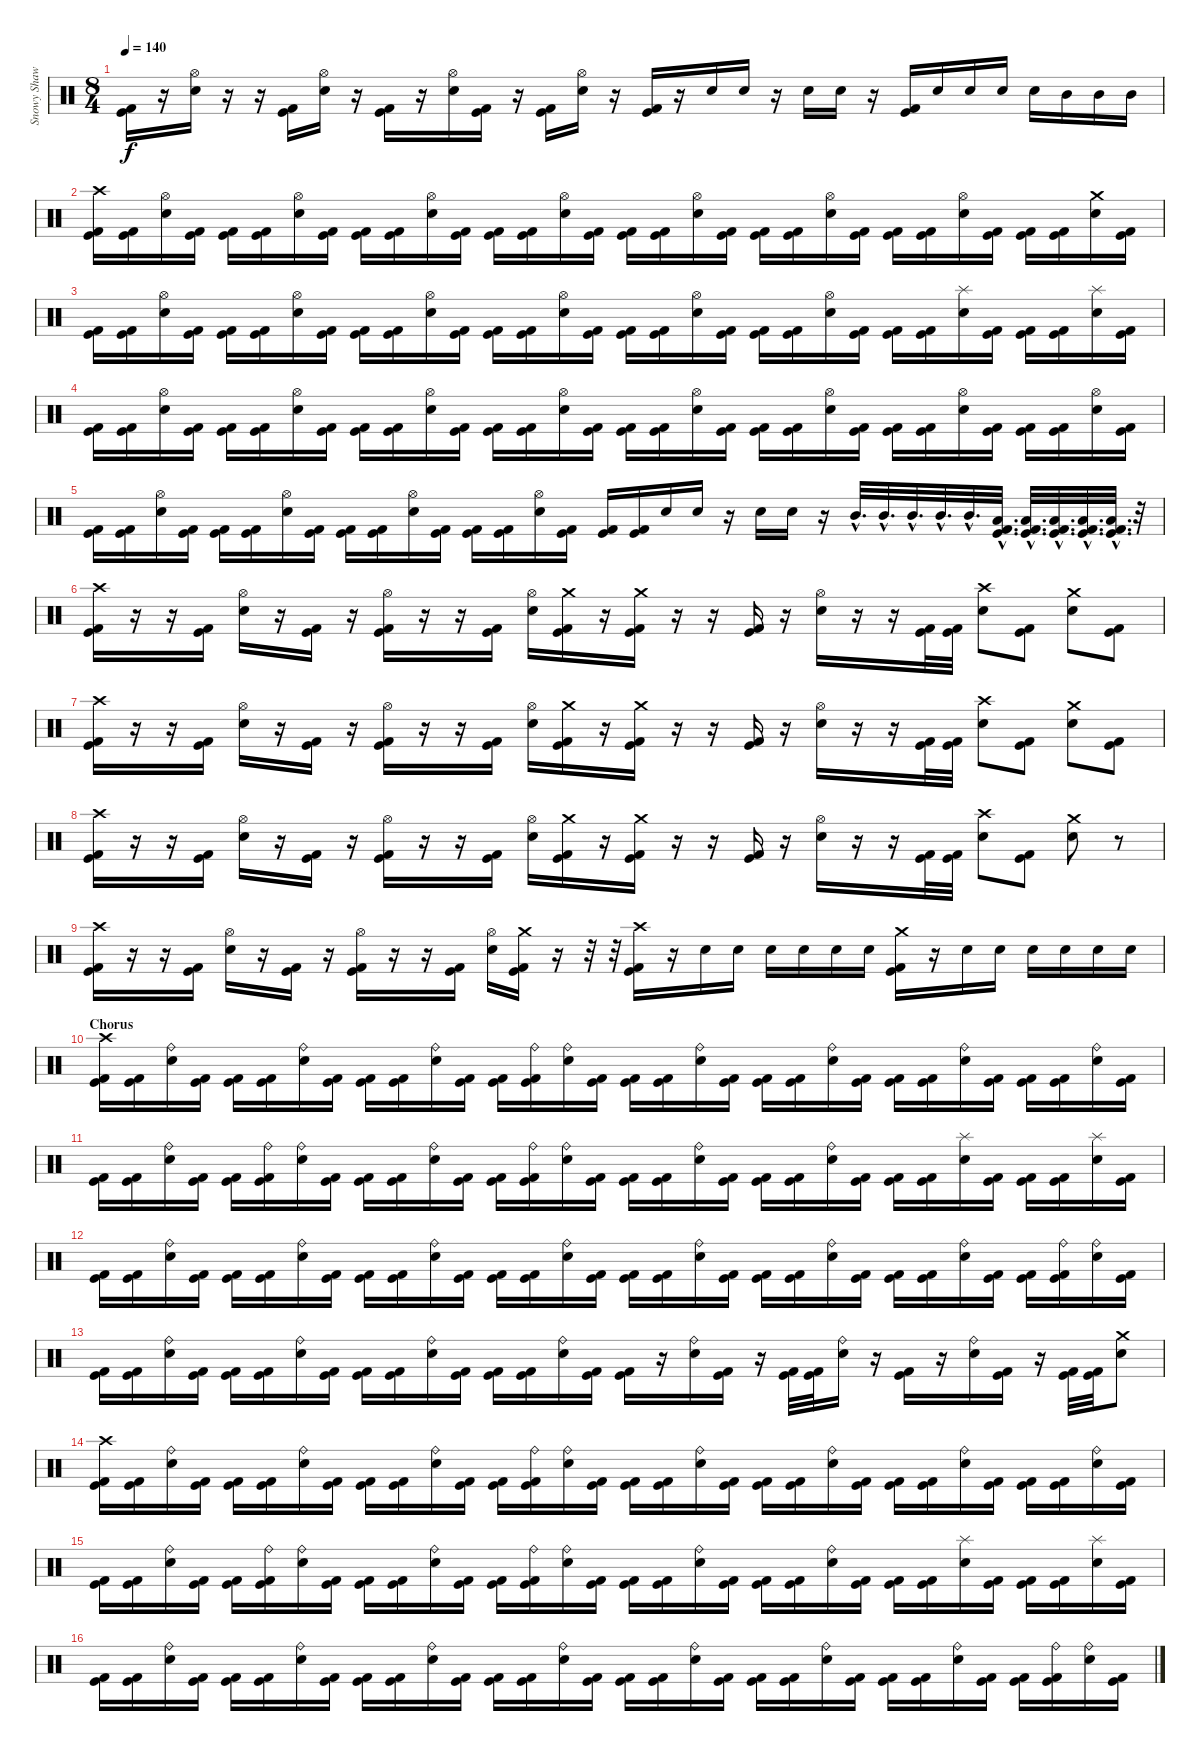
\track ("Snowy Shaw" "Snowy Shaw") {instrument percussion}
\staff {score}
\articulation defaults
\ts (8 4)
\tempo 140
\clef neutral
\ks c
("Kick (hit)" "Kick (hit) 2").16{dy f} r.16 ("Hi-Hat (open)" "Electric Snare (hit)").16 r.16 r.16 ("Kick (hit)" "Kick (hit) 2").16 ("Hi-Hat (open)" "Electric Snare (hit)").16 r.16 ("Kick (hit)" "Kick (hit) 2").16 r.16 ("Hi-Hat (open)" "Electric Snare (hit)").16 ("Kick (hit)" "Kick (hit) 2").16 r.16 ("Kick (hit)" "Kick (hit) 2").16 ("Hi-Hat (open)" "Electric Snare (hit)").16 r.16 ("Kick (hit)" "Kick (hit) 2").16 r.16 "Electric Snare (hit)".16 "Electric Snare (hit)".16 r.16 "Electric Snare (hit)".16 "Electric Snare (hit)".16 r.16 ("Kick (hit)" "Kick (hit) 2").16 "Electric Snare (hit)".16 "Electric Snare (hit)".16 "Electric Snare (hit)".16 "Electric Snare (hit)".16 "Mid Tom (hit)".16 "Mid Tom (hit)".16 "Mid Tom (hit)".16 |
("Crash high (hit)" "Kick (hit)" "Kick (hit) 2").16 ("Kick (hit)" "Kick (hit) 2").16 ("Hi-Hat (open)" "Electric Snare (hit)").16 ("Kick (hit)" "Kick (hit) 2").16 ("Kick (hit)" "Kick (hit) 2").16 ("Kick (hit)" "Kick (hit) 2").16 ("Hi-Hat (open)" "Electric Snare (hit)").16 ("Kick (hit)" "Kick (hit) 2").16 ("Kick (hit)" "Kick (hit) 2").16 ("Kick (hit)" "Kick (hit) 2").16 ("Hi-Hat (open)" "Electric Snare (hit)").16 ("Kick (hit)" "Kick (hit) 2").16 ("Kick (hit)" "Kick (hit) 2").16 ("Kick (hit)" "Kick (hit) 2").16 ("Hi-Hat (open)" "Electric Snare (hit)").16 ("Kick (hit)" "Kick (hit) 2").16 ("Kick (hit)" "Kick (hit) 2").16 ("Kick (hit)" "Kick (hit) 2").16 ("Hi-Hat (open)" "Electric Snare (hit)").16 ("Kick (hit)" "Kick (hit) 2").16 ("Kick (hit)" "Kick (hit) 2").16 ("Kick (hit)" "Kick (hit) 2").16 ("Hi-Hat (open)" "Electric Snare (hit)").16 ("Kick (hit)" "Kick (hit) 2").16 ("Kick (hit)" "Kick (hit) 2").16 ("Kick (hit)" "Kick (hit) 2").16 ("Hi-Hat (open)" "Electric Snare (hit)").16 ("Kick (hit)" "Kick (hit) 2").16 ("Kick (hit)" "Kick (hit) 2").16 ("Kick (hit)" "Kick (hit) 2").16 ("Crash medium (hit)" "Electric Snare (hit)").16 ("Kick (hit)" "Kick (hit) 2").16 |
("Kick (hit)" "Kick (hit) 2").16 ("Kick (hit)" "Kick (hit) 2").16 ("Hi-Hat (open)" "Electric Snare (hit)").16 ("Kick (hit)" "Kick (hit) 2").16 ("Kick (hit)" "Kick (hit) 2").16 ("Kick (hit)" "Kick (hit) 2").16 ("Hi-Hat (open)" "Electric Snare (hit)").16 ("Kick (hit)" "Kick (hit) 2").16 ("Kick (hit)" "Kick (hit) 2").16 ("Kick (hit)" "Kick (hit) 2").16 ("Hi-Hat (open)" "Electric Snare (hit)").16 ("Kick (hit)" "Kick (hit) 2").16 ("Kick (hit)" "Kick (hit) 2").16 ("Kick (hit)" "Kick (hit) 2").16 ("Hi-Hat (open)" "Electric Snare (hit)").16 ("Kick (hit)" "Kick (hit) 2").16 ("Kick (hit)" "Kick (hit) 2").16 ("Kick (hit)" "Kick (hit) 2").16 ("Hi-Hat (open)" "Electric Snare (hit)").16 ("Kick (hit)" "Kick (hit) 2").16 ("Kick (hit)" "Kick (hit) 2").16 ("Kick (hit)" "Kick (hit) 2").16 ("Hi-Hat (open)" "Electric Snare (hit)").16 ("Kick (hit)" "Kick (hit) 2").16 ("Kick (hit)" "Kick (hit) 2").16 ("Kick (hit)" "Kick (hit) 2").16 ("Splash (hit)" "Electric Snare (hit)").16 ("Kick (hit)" "Kick (hit) 2").16 ("Kick (hit)" "Kick (hit) 2").16 ("Kick (hit)" "Kick (hit) 2").16 ("Splash (hit)" "Electric Snare (hit)").16 ("Kick (hit)" "Kick (hit) 2").16 |
("Kick (hit)" "Kick (hit) 2").16 ("Kick (hit)" "Kick (hit) 2").16 ("Hi-Hat (open)" "Electric Snare (hit)").16 ("Kick (hit)" "Kick (hit) 2").16 ("Kick (hit)" "Kick (hit) 2").16 ("Kick (hit)" "Kick (hit) 2").16 ("Hi-Hat (open)" "Electric Snare (hit)").16 ("Kick (hit)" "Kick (hit) 2").16 ("Kick (hit)" "Kick (hit) 2").16 ("Kick (hit)" "Kick (hit) 2").16 ("Hi-Hat (open)" "Electric Snare (hit)").16 ("Kick (hit)" "Kick (hit) 2").16 ("Kick (hit)" "Kick (hit) 2").16 ("Kick (hit)" "Kick (hit) 2").16 ("Hi-Hat (open)" "Electric Snare (hit)").16 ("Kick (hit)" "Kick (hit) 2").16 ("Kick (hit)" "Kick (hit) 2").16 ("Kick (hit)" "Kick (hit) 2").16 ("Hi-Hat (open)" "Electric Snare (hit)").16 ("Kick (hit)" "Kick (hit) 2").16 ("Kick (hit)" "Kick (hit) 2").16 ("Kick (hit)" "Kick (hit) 2").16 ("Hi-Hat (open)" "Electric Snare (hit)").16 ("Kick (hit)" "Kick (hit) 2").16 ("Kick (hit)" "Kick (hit) 2").16 ("Kick (hit)" "Kick (hit) 2").16 ("Hi-Hat (open)" "Electric Snare (hit)").16 ("Kick (hit)" "Kick (hit) 2").16 ("Kick (hit)" "Kick (hit) 2").16 ("Kick (hit)" "Kick (hit) 2").16 ("Hi-Hat (open)" "Electric Snare (hit)").16 ("Kick (hit)" "Kick (hit) 2").16 |
("Kick (hit)" "Kick (hit) 2").16 ("Kick (hit) 2" "Kick (hit)").16 ("Hi-Hat (open)" "Electric Snare (hit)").16 ("Kick (hit) 2" "Kick (hit)").16 ("Kick (hit) 2" "Kick (hit)").16 ("Kick (hit)" "Kick (hit) 2").16 ("Hi-Hat (open)" "Electric Snare (hit)").16 ("Kick (hit) 2" "Kick (hit)").16 ("Kick (hit)" "Kick (hit) 2").16 ("Kick (hit) 2" "Kick (hit)").16 ("Hi-Hat (open)" "Electric Snare (hit)").16 ("Kick (hit)" "Kick (hit) 2").16 ("Kick (hit) 2" "Kick (hit)").16 ("Kick (hit)" "Kick (hit) 2").16 ("Hi-Hat (open)" "Electric Snare (hit)").16 ("Kick (hit) 2" "Kick (hit)").16 ("Kick (hit)" "Kick (hit) 2").16 ("Kick (hit) 2" "Kick (hit)").16 "Electric Snare (hit)".16 "Electric Snare (hit)".16 r.16 "Electric Snare (hit)".16 "Electric Snare (hit)".16 r.16 "Mid Tom (hit)"{hac}.32{d} "Mid Tom (hit)"{hac}.32{d} "Mid Tom (hit)"{hac}.32{d} "Mid Tom (hit)"{hac}.32{d} "Mid Tom (hit)"{hac}.32{d} ("Low Tom (hit)"{hac} "Kick (hit) 2"{hac} "Kick (hit)"{hac}).32{d} ("Low Tom (hit)"{hac} "Kick (hit) 2"{hac} "Kick (hit)"{hac}).32{d} ("Low Tom (hit)"{hac} "Kick (hit) 2"{hac} "Kick (hit)"{hac}).32{d} ("Low Tom (hit)"{hac} "Kick (hit) 2"{hac} "Kick (hit)"{hac}).32{d} ("Low Tom (hit)"{hac} "Kick (hit) 2"{hac} "Kick (hit)"{hac}).32{d} r.32 |
("Crash high (hit)" "Kick (hit) 2" "Kick (hit)").16 r.16 r.16 ("Kick (hit) 2" "Kick (hit)").16 ("Hi-Hat (open)" "Electric Snare (hit)").16 r.16 ("Kick (hit) 2" "Kick (hit)").16 r.16 ("Hi-Hat (open)" "Kick (hit) 2" "Kick (hit)").16 r.16 r.16 ("Kick (hit) 2" "Kick (hit)").16 ("Hi-Hat (open)" "Electric Snare (hit)").16 ("Crash medium (hit)" "Kick (hit) 2" "Kick (hit)").16 r.16 ("Crash medium (hit)" "Kick (hit) 2" "Kick (hit)").16 r.16 r.16 ("Kick (hit) 2" "Kick (hit)").16 r.16 ("Hi-Hat (open)" "Electric Snare (hit)").16 r.16 r.16 ("Kick (hit) 2" "Kick (hit)").32 ("Kick (hit) 2" "Kick (hit)").32 ("Crash high (hit)" "Electric Snare (hit)").8 ("Kick (hit) 2" "Kick (hit)").8 ("Crash medium (hit)" "Electric Snare (hit)").8 ("Kick (hit) 2" "Kick (hit)").8 |
("Crash high (hit)" "Kick (hit) 2" "Kick (hit)").16 r.16 r.16 ("Kick (hit) 2" "Kick (hit)").16 ("Hi-Hat (open)" "Electric Snare (hit)").16 r.16 ("Kick (hit) 2" "Kick (hit)").16 r.16 ("Hi-Hat (open)" "Kick (hit) 2" "Kick (hit)").16 r.16 r.16 ("Kick (hit) 2" "Kick (hit)").16 ("Hi-Hat (open)" "Electric Snare (hit)").16 ("Crash medium (hit)" "Kick (hit) 2" "Kick (hit)").16 r.16 ("Crash medium (hit)" "Kick (hit) 2" "Kick (hit)").16 r.16 r.16 ("Kick (hit) 2" "Kick (hit)").16 r.16 ("Hi-Hat (open)" "Electric Snare (hit)").16 r.16 r.16 ("Kick (hit) 2" "Kick (hit)").32 ("Kick (hit) 2" "Kick (hit)").32 ("Crash high (hit)" "Electric Snare (hit)").8 ("Kick (hit) 2" "Kick (hit)").8 ("Crash medium (hit)" "Electric Snare (hit)").8 ("Kick (hit) 2" "Kick (hit)").8 |
("Crash high (hit)" "Kick (hit) 2" "Kick (hit)").16 r.16 r.16 ("Kick (hit) 2" "Kick (hit)").16 ("Hi-Hat (open)" "Electric Snare (hit)").16 r.16 ("Kick (hit) 2" "Kick (hit)").16 r.16 ("Hi-Hat (open)" "Kick (hit) 2" "Kick (hit)").16 r.16 r.16 ("Kick (hit) 2" "Kick (hit)").16 ("Hi-Hat (open)" "Electric Snare (hit)").16 ("Crash medium (hit)" "Kick (hit) 2" "Kick (hit)").16 r.16 ("Crash medium (hit)" "Kick (hit) 2" "Kick (hit)").16 r.16 r.16 ("Kick (hit) 2" "Kick (hit)").16 r.16 ("Hi-Hat (open)" "Electric Snare (hit)").16 r.16 r.16 ("Kick (hit) 2" "Kick (hit)").32 ("Kick (hit) 2" "Kick (hit)").32 ("Crash high (hit)" "Electric Snare (hit)").8 ("Kick (hit) 2" "Kick (hit)").8 ("Crash medium (hit)" "Electric Snare (hit)").8 r.8 |
("Crash high (hit)" "Kick (hit) 2" "Kick (hit)").16 r.16 r.16 ("Kick (hit) 2" "Kick (hit)").16 ("Hi-Hat (open)" "Electric Snare (hit)").16 r.16 ("Kick (hit) 2" "Kick (hit)").16 r.16 ("Hi-Hat (open)" "Kick (hit) 2" "Kick (hit)").16 r.16 r.16 ("Kick (hit) 2" "Kick (hit)").16 ("Hi-Hat (open)" "Electric Snare (hit)").16 ("Crash medium (hit)" "Kick (hit) 2" "Kick (hit)").16 r.16 r.32 r.32 ("Crash high (hit)" "Kick (hit) 2" "Kick (hit)").16 r.16 "Electric Snare (hit)".16 "Electric Snare (hit)".16 "Electric Snare (hit)".16 "Electric Snare (hit)".16 "Electric Snare (hit)".16 "Electric Snare (hit)".16 ("Crash medium (hit)" "Kick (hit) 2" "Kick (hit)").16 r.16 "Electric Snare (hit)".16 "Electric Snare (hit)".16 "Electric Snare (hit)".16 "Electric Snare (hit)".16 "Electric Snare (hit)".16 "Electric Snare (hit)".16 |
\section ("" "Chorus")
("Crash high (hit)" "Kick (hit)" "Kick (hit) 2").16 ("Kick (hit)" "Kick (hit) 2").16 ("Ride (bell)" "Electric Snare (hit)").16 ("Kick (hit)" "Kick (hit) 2").16 ("Kick (hit)" "Kick (hit) 2").16 ("Kick (hit)" "Kick (hit) 2").16 ("Ride (bell)" "Electric Snare (hit)").16 ("Kick (hit)" "Kick (hit) 2").16 ("Kick (hit)" "Kick (hit) 2").16 ("Kick (hit)" "Kick (hit) 2").16 ("Ride (bell)" "Electric Snare (hit)").16 ("Kick (hit)" "Kick (hit) 2").16 ("Kick (hit)" "Kick (hit) 2").16 ("Ride (bell)" "Kick (hit)" "Kick (hit) 2").16 ("Ride (bell)" "Electric Snare (hit)").16 ("Kick (hit)" "Kick (hit) 2").16 ("Kick (hit)" "Kick (hit) 2").16 ("Kick (hit)" "Kick (hit) 2").16 ("Ride (bell)" "Electric Snare (hit)").16 ("Kick (hit)" "Kick (hit) 2").16 ("Kick (hit)" "Kick (hit) 2").16 ("Kick (hit)" "Kick (hit) 2").16 ("Ride (bell)" "Electric Snare (hit)").16 ("Kick (hit)" "Kick (hit) 2").16 ("Kick (hit)" "Kick (hit) 2").16 ("Kick (hit)" "Kick (hit) 2").16 ("Ride (bell)" "Electric Snare (hit)").16 ("Kick (hit)" "Kick (hit) 2").16 ("Kick (hit)" "Kick (hit) 2").16 ("Kick (hit)" "Kick (hit) 2").16 ("Ride (bell)" "Electric Snare (hit)").16 ("Kick (hit)" "Kick (hit) 2").16 |
("Kick (hit)" "Kick (hit) 2").16 ("Kick (hit)" "Kick (hit) 2").16 ("Ride (bell)" "Electric Snare (hit)").16 ("Kick (hit)" "Kick (hit) 2").16 ("Kick (hit)" "Kick (hit) 2").16 ("Ride (bell)" "Kick (hit)" "Kick (hit) 2").16 ("Ride (bell)" "Electric Snare (hit)").16 ("Kick (hit)" "Kick (hit) 2").16 ("Kick (hit)" "Kick (hit) 2").16 ("Kick (hit)" "Kick (hit) 2").16 ("Ride (bell)" "Electric Snare (hit)").16 ("Kick (hit)" "Kick (hit) 2").16 ("Kick (hit)" "Kick (hit) 2").16 ("Ride (bell)" "Kick (hit)" "Kick (hit) 2").16 ("Ride (bell)" "Electric Snare (hit)").16 ("Kick (hit)" "Kick (hit) 2").16 ("Kick (hit)" "Kick (hit) 2").16 ("Kick (hit)" "Kick (hit) 2").16 ("Ride (bell)" "Electric Snare (hit)").16 ("Kick (hit)" "Kick (hit) 2").16 ("Kick (hit)" "Kick (hit) 2").16 ("Kick (hit)" "Kick (hit) 2").16 ("Ride (bell)" "Electric Snare (hit)").16 ("Kick (hit)" "Kick (hit) 2").16 ("Kick (hit)" "Kick (hit) 2").16 ("Kick (hit)" "Kick (hit) 2").16 ("Splash (hit)" "Electric Snare (hit)").16 ("Kick (hit)" "Kick (hit) 2").16 ("Kick (hit)" "Kick (hit) 2").16 ("Kick (hit)" "Kick (hit) 2").16 ("Splash (hit)" "Electric Snare (hit)").16 ("Kick (hit)" "Kick (hit) 2").16 |
("Kick (hit)" "Kick (hit) 2").16 ("Kick (hit)" "Kick (hit) 2").16 ("Ride (bell)" "Electric Snare (hit)").16 ("Kick (hit)" "Kick (hit) 2").16 ("Kick (hit)" "Kick (hit) 2").16 ("Kick (hit)" "Kick (hit) 2").16 ("Ride (bell)" "Electric Snare (hit)").16 ("Kick (hit)" "Kick (hit) 2").16 ("Kick (hit)" "Kick (hit) 2").16 ("Kick (hit)" "Kick (hit) 2").16 ("Ride (bell)" "Electric Snare (hit)").16 ("Kick (hit)" "Kick (hit) 2").16 ("Kick (hit)" "Kick (hit) 2").16 ("Kick (hit)" "Kick (hit) 2").16 ("Ride (bell)" "Electric Snare (hit)").16 ("Kick (hit)" "Kick (hit) 2").16 ("Kick (hit)" "Kick (hit) 2").16 ("Kick (hit)" "Kick (hit) 2").16 ("Ride (bell)" "Electric Snare (hit)").16 ("Kick (hit)" "Kick (hit) 2").16 ("Kick (hit)" "Kick (hit) 2").16 ("Kick (hit)" "Kick (hit) 2").16 ("Ride (bell)" "Electric Snare (hit)").16 ("Kick (hit)" "Kick (hit) 2").16 ("Kick (hit)" "Kick (hit) 2").16 ("Kick (hit)" "Kick (hit) 2").16 ("Ride (bell)" "Electric Snare (hit)").16 ("Kick (hit)" "Kick (hit) 2").16 ("Kick (hit)" "Kick (hit) 2").16 ("Ride (bell)" "Kick (hit)" "Kick (hit) 2").16 ("Ride (bell)" "Electric Snare (hit)").16 ("Kick (hit)" "Kick (hit) 2").16 |
("Kick (hit)" "Kick (hit) 2").16 ("Kick (hit)" "Kick (hit) 2").16 ("Ride (bell)" "Electric Snare (hit)").16 ("Kick (hit)" "Kick (hit) 2").16 ("Kick (hit)" "Kick (hit) 2").16 ("Kick (hit)" "Kick (hit) 2").16 ("Ride (bell)" "Electric Snare (hit)").16 ("Kick (hit)" "Kick (hit) 2").16 ("Kick (hit)" "Kick (hit) 2").16 ("Kick (hit)" "Kick (hit) 2").16 ("Ride (bell)" "Electric Snare (hit)").16 ("Kick (hit)" "Kick (hit) 2").16 ("Kick (hit)" "Kick (hit) 2").16 ("Kick (hit)" "Kick (hit) 2").16 ("Ride (bell)" "Electric Snare (hit)").16 ("Kick (hit)" "Kick (hit) 2").16 ("Kick (hit)" "Kick (hit) 2").16 r.16 ("Ride (bell)" "Electric Snare (hit)").16 ("Kick (hit) 2" "Kick (hit)").16 r.16 ("Kick (hit) 2" "Kick (hit)").32 ("Kick (hit) 2" "Kick (hit)").32 ("Ride (bell)" "Electric Snare (hit)").16 r.16 ("Kick (hit) 2" "Kick (hit)").16 r.16 ("Ride (bell)" "Electric Snare (hit)").16 ("Kick (hit) 2" "Kick (hit)").16 r.16 ("Kick (hit)" "Kick (hit) 2").32 ("Kick (hit)" "Kick (hit) 2").32 ("Crash medium (hit)" "Electric Snare (hit)").8 |
("Crash high (hit)" "Kick (hit)" "Kick (hit) 2").16 ("Kick (hit)" "Kick (hit) 2").16 ("Ride (bell)" "Electric Snare (hit)").16 ("Kick (hit)" "Kick (hit) 2").16 ("Kick (hit)" "Kick (hit) 2").16 ("Kick (hit)" "Kick (hit) 2").16 ("Ride (bell)" "Electric Snare (hit)").16 ("Kick (hit)" "Kick (hit) 2").16 ("Kick (hit)" "Kick (hit) 2").16 ("Kick (hit)" "Kick (hit) 2").16 ("Ride (bell)" "Electric Snare (hit)").16 ("Kick (hit)" "Kick (hit) 2").16 ("Kick (hit)" "Kick (hit) 2").16 ("Ride (bell)" "Kick (hit)" "Kick (hit) 2").16 ("Ride (bell)" "Electric Snare (hit)").16 ("Kick (hit)" "Kick (hit) 2").16 ("Kick (hit)" "Kick (hit) 2").16 ("Kick (hit)" "Kick (hit) 2").16 ("Ride (bell)" "Electric Snare (hit)").16 ("Kick (hit)" "Kick (hit) 2").16 ("Kick (hit)" "Kick (hit) 2").16 ("Kick (hit)" "Kick (hit) 2").16 ("Ride (bell)" "Electric Snare (hit)").16 ("Kick (hit)" "Kick (hit) 2").16 ("Kick (hit)" "Kick (hit) 2").16 ("Kick (hit)" "Kick (hit) 2").16 ("Ride (bell)" "Electric Snare (hit)").16 ("Kick (hit)" "Kick (hit) 2").16 ("Kick (hit)" "Kick (hit) 2").16 ("Kick (hit)" "Kick (hit) 2").16 ("Ride (bell)" "Electric Snare (hit)").16 ("Kick (hit)" "Kick (hit) 2").16 |
("Kick (hit)" "Kick (hit) 2").16 ("Kick (hit)" "Kick (hit) 2").16 ("Ride (bell)" "Electric Snare (hit)").16 ("Kick (hit)" "Kick (hit) 2").16 ("Kick (hit)" "Kick (hit) 2").16 ("Ride (bell)" "Kick (hit)" "Kick (hit) 2").16 ("Ride (bell)" "Electric Snare (hit)").16 ("Kick (hit)" "Kick (hit) 2").16 ("Kick (hit)" "Kick (hit) 2").16 ("Kick (hit)" "Kick (hit) 2").16 ("Ride (bell)" "Electric Snare (hit)").16 ("Kick (hit)" "Kick (hit) 2").16 ("Kick (hit)" "Kick (hit) 2").16 ("Ride (bell)" "Kick (hit)" "Kick (hit) 2").16 ("Ride (bell)" "Electric Snare (hit)").16 ("Kick (hit)" "Kick (hit) 2").16 ("Kick (hit)" "Kick (hit) 2").16 ("Kick (hit)" "Kick (hit) 2").16 ("Ride (bell)" "Electric Snare (hit)").16 ("Kick (hit)" "Kick (hit) 2").16 ("Kick (hit)" "Kick (hit) 2").16 ("Kick (hit)" "Kick (hit) 2").16 ("Ride (bell)" "Electric Snare (hit)").16 ("Kick (hit)" "Kick (hit) 2").16 ("Kick (hit)" "Kick (hit) 2").16 ("Kick (hit)" "Kick (hit) 2").16 ("Splash (hit)" "Electric Snare (hit)").16 ("Kick (hit)" "Kick (hit) 2").16 ("Kick (hit)" "Kick (hit) 2").16 ("Kick (hit)" "Kick (hit) 2").16 ("Splash (hit)" "Electric Snare (hit)").16 ("Kick (hit)" "Kick (hit) 2").16 |
("Kick (hit)" "Kick (hit) 2").16 ("Kick (hit)" "Kick (hit) 2").16 ("Ride (bell)" "Electric Snare (hit)").16 ("Kick (hit)" "Kick (hit) 2").16 ("Kick (hit)" "Kick (hit) 2").16 ("Kick (hit)" "Kick (hit) 2").16 ("Ride (bell)" "Electric Snare (hit)").16 ("Kick (hit)" "Kick (hit) 2").16 ("Kick (hit)" "Kick (hit) 2").16 ("Kick (hit)" "Kick (hit) 2").16 ("Ride (bell)" "Electric Snare (hit)").16 ("Kick (hit)" "Kick (hit) 2").16 ("Kick (hit)" "Kick (hit) 2").16 ("Kick (hit)" "Kick (hit) 2").16 ("Ride (bell)" "Electric Snare (hit)").16 ("Kick (hit)" "Kick (hit) 2").16 ("Kick (hit)" "Kick (hit) 2").16 ("Kick (hit)" "Kick (hit) 2").16 ("Ride (bell)" "Electric Snare (hit)").16 ("Kick (hit)" "Kick (hit) 2").16 ("Kick (hit)" "Kick (hit) 2").16 ("Kick (hit)" "Kick (hit) 2").16 ("Ride (bell)" "Electric Snare (hit)").16 ("Kick (hit)" "Kick (hit) 2").16 ("Kick (hit)" "Kick (hit) 2").16 ("Kick (hit)" "Kick (hit) 2").16 ("Ride (bell)" "Electric Snare (hit)").16 ("Kick (hit)" "Kick (hit) 2").16 ("Kick (hit)" "Kick (hit) 2").16 ("Ride (bell)" "Kick (hit)" "Kick (hit) 2").16 ("Ride (bell)" "Electric Snare (hit)").16 ("Kick (hit)" "Kick (hit) 2").16
